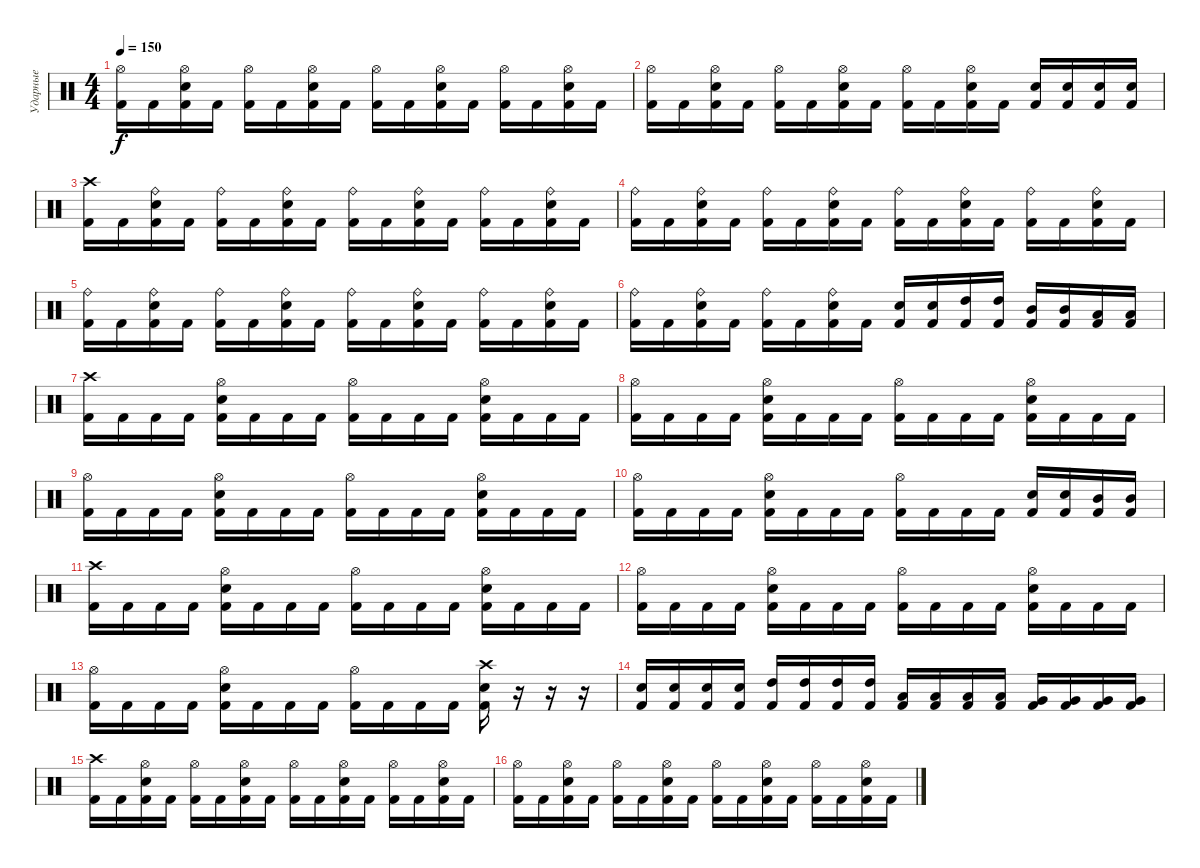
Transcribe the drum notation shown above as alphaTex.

\track ("Ударные" "Ударные") {instrument percussion}
\staff {score}
\articulation defaults
\ts (4 4)
\tempo 150
\clef neutral
\ks c
("Hi-Hat (open)" "Kick (hit) 2").16{dy f} "Kick (hit) 2".16 ("Hi-Hat (open)" "Electric Snare (hit)" "Kick (hit) 2").16 "Kick (hit) 2".16 ("Hi-Hat (open)" "Kick (hit) 2").16 "Kick (hit) 2".16 ("Hi-Hat (open)" "Electric Snare (hit)" "Kick (hit) 2").16 "Kick (hit) 2".16 ("Hi-Hat (open)" "Kick (hit) 2").16 "Kick (hit) 2".16 ("Hi-Hat (open)" "Electric Snare (hit)" "Kick (hit) 2").16 "Kick (hit) 2".16 ("Hi-Hat (open)" "Kick (hit) 2").16 "Kick (hit) 2".16 ("Hi-Hat (open)" "Electric Snare (hit)" "Kick (hit) 2").16 "Kick (hit) 2".16 |
("Hi-Hat (open)" "Kick (hit) 2").16 "Kick (hit) 2".16 ("Hi-Hat (open)" "Electric Snare (hit)" "Kick (hit) 2").16 "Kick (hit) 2".16 ("Hi-Hat (open)" "Kick (hit) 2").16 "Kick (hit) 2".16 ("Hi-Hat (open)" "Electric Snare (hit)" "Kick (hit) 2").16 "Kick (hit) 2".16 ("Hi-Hat (open)" "Kick (hit) 2").16 "Kick (hit) 2".16 ("Hi-Hat (open)" "Electric Snare (hit)" "Kick (hit) 2").16 "Kick (hit) 2".16 ("Electric Snare (hit)" "Kick (hit) 2").16 ("Electric Snare (hit)" "Kick (hit) 2").16 ("Electric Snare (hit)" "Kick (hit) 2").16 ("Electric Snare (hit)" "Kick (hit) 2").16 |
("Crash high (hit)" "Kick (hit) 2").16 "Kick (hit) 2".16 ("Ride (bell)" "Electric Snare (hit)" "Kick (hit) 2").16 "Kick (hit) 2".16 ("Ride (bell)" "Kick (hit) 2").16 "Kick (hit) 2".16 ("Ride (bell)" "Electric Snare (hit)" "Kick (hit) 2").16 "Kick (hit) 2".16 ("Ride (bell)" "Kick (hit) 2").16 "Kick (hit) 2".16 ("Ride (bell)" "Electric Snare (hit)" "Kick (hit) 2").16 "Kick (hit) 2".16 ("Ride (bell)" "Kick (hit) 2").16 "Kick (hit) 2".16 ("Ride (bell)" "Electric Snare (hit)" "Kick (hit) 2").16 "Kick (hit) 2".16 |
("Ride (bell)" "Kick (hit) 2").16 "Kick (hit) 2".16 ("Ride (bell)" "Electric Snare (hit)" "Kick (hit) 2").16 "Kick (hit) 2".16 ("Ride (bell)" "Kick (hit) 2").16 "Kick (hit) 2".16 ("Ride (bell)" "Electric Snare (hit)" "Kick (hit) 2").16 "Kick (hit) 2".16 ("Ride (bell)" "Kick (hit) 2").16 "Kick (hit) 2".16 ("Ride (bell)" "Electric Snare (hit)" "Kick (hit) 2").16 "Kick (hit) 2".16 ("Ride (bell)" "Kick (hit) 2").16 "Kick (hit) 2".16 ("Ride (bell)" "Electric Snare (hit)" "Kick (hit) 2").16 "Kick (hit) 2".16 |
("Ride (bell)" "Kick (hit) 2").16 "Kick (hit) 2".16 ("Ride (bell)" "Electric Snare (hit)" "Kick (hit) 2").16 "Kick (hit) 2".16 ("Ride (bell)" "Kick (hit) 2").16 "Kick (hit) 2".16 ("Ride (bell)" "Electric Snare (hit)" "Kick (hit) 2").16 "Kick (hit) 2".16 ("Ride (bell)" "Kick (hit) 2").16 "Kick (hit) 2".16 ("Ride (bell)" "Electric Snare (hit)" "Kick (hit) 2").16 "Kick (hit) 2".16 ("Ride (bell)" "Kick (hit) 2").16 "Kick (hit) 2".16 ("Ride (bell)" "Electric Snare (hit)" "Kick (hit) 2").16 "Kick (hit) 2".16 |
("Ride (bell)" "Kick (hit) 2").16 "Kick (hit) 2".16 ("Ride (bell)" "Electric Snare (hit)" "Kick (hit) 2").16 "Kick (hit) 2".16 ("Ride (bell)" "Kick (hit) 2").16 "Kick (hit) 2".16 ("Ride (bell)" "Electric Snare (hit)" "Kick (hit) 2").16 "Kick (hit) 2".16 ("Electric Snare (hit)" "Kick (hit) 2").16 ("Electric Snare (hit)" "Kick (hit) 2").16 ("High Tom (hit)" "Kick (hit) 2").16 ("High Tom (hit)" "Kick (hit) 2").16 ("Mid Tom (hit)" "Kick (hit) 2").16 ("Mid Tom (hit)" "Kick (hit) 2").16 ("Low Tom (hit)" "Kick (hit) 2").16 ("Low Tom (hit)" "Kick (hit) 2").16 |
("Crash high (hit)" "Kick (hit) 2").16 "Kick (hit) 2".16 "Kick (hit) 2".16 "Kick (hit) 2".16 ("Hi-Hat (open)" "Electric Snare (hit)" "Kick (hit) 2").16 "Kick (hit) 2".16 "Kick (hit) 2".16 "Kick (hit) 2".16 ("Hi-Hat (open)" "Kick (hit) 2").16 "Kick (hit) 2".16 "Kick (hit) 2".16 "Kick (hit) 2".16 ("Hi-Hat (open)" "Electric Snare (hit)" "Kick (hit) 2").16 "Kick (hit) 2".16 "Kick (hit) 2".16 "Kick (hit) 2".16 |
("Hi-Hat (open)" "Kick (hit) 2").16 "Kick (hit) 2".16 "Kick (hit) 2".16 "Kick (hit) 2".16 ("Hi-Hat (open)" "Electric Snare (hit)" "Kick (hit) 2").16 "Kick (hit) 2".16 "Kick (hit) 2".16 "Kick (hit) 2".16 ("Hi-Hat (open)" "Kick (hit) 2").16 "Kick (hit) 2".16 "Kick (hit) 2".16 "Kick (hit) 2".16 ("Hi-Hat (open)" "Electric Snare (hit)" "Kick (hit) 2").16 "Kick (hit) 2".16 "Kick (hit) 2".16 "Kick (hit) 2".16 |
("Hi-Hat (open)" "Kick (hit) 2").16 "Kick (hit) 2".16 "Kick (hit) 2".16 "Kick (hit) 2".16 ("Hi-Hat (open)" "Electric Snare (hit)" "Kick (hit) 2").16 "Kick (hit) 2".16 "Kick (hit) 2".16 "Kick (hit) 2".16 ("Hi-Hat (open)" "Kick (hit) 2").16 "Kick (hit) 2".16 "Kick (hit) 2".16 "Kick (hit) 2".16 ("Hi-Hat (open)" "Electric Snare (hit)" "Kick (hit) 2").16 "Kick (hit) 2".16 "Kick (hit) 2".16 "Kick (hit) 2".16 |
("Hi-Hat (open)" "Kick (hit) 2").16 "Kick (hit) 2".16 "Kick (hit) 2".16 "Kick (hit) 2".16 ("Hi-Hat (open)" "Electric Snare (hit)" "Kick (hit) 2").16 "Kick (hit) 2".16 "Kick (hit) 2".16 "Kick (hit) 2".16 ("Hi-Hat (open)" "Kick (hit) 2").16 "Kick (hit) 2".16 "Kick (hit) 2".16 "Kick (hit) 2".16 ("Electric Snare (hit)" "Kick (hit) 2").16 ("Electric Snare (hit)" "Kick (hit) 2").16 ("Mid Tom (hit)" "Kick (hit) 2").16 ("Mid Tom (hit)" "Kick (hit) 2").16 |
("Crash high (hit)" "Kick (hit) 2").16 "Kick (hit) 2".16 "Kick (hit) 2".16 "Kick (hit) 2".16 ("Hi-Hat (open)" "Electric Snare (hit)" "Kick (hit) 2").16 "Kick (hit) 2".16 "Kick (hit) 2".16 "Kick (hit) 2".16 ("Hi-Hat (open)" "Kick (hit) 2").16 "Kick (hit) 2".16 "Kick (hit) 2".16 "Kick (hit) 2".16 ("Hi-Hat (open)" "Electric Snare (hit)" "Kick (hit) 2").16 "Kick (hit) 2".16 "Kick (hit) 2".16 "Kick (hit) 2".16 |
("Hi-Hat (open)" "Kick (hit) 2").16 "Kick (hit) 2".16 "Kick (hit) 2".16 "Kick (hit) 2".16 ("Hi-Hat (open)" "Electric Snare (hit)" "Kick (hit) 2").16 "Kick (hit) 2".16 "Kick (hit) 2".16 "Kick (hit) 2".16 ("Hi-Hat (open)" "Kick (hit) 2").16 "Kick (hit) 2".16 "Kick (hit) 2".16 "Kick (hit) 2".16 ("Hi-Hat (open)" "Electric Snare (hit)" "Kick (hit) 2").16 "Kick (hit) 2".16 "Kick (hit) 2".16 "Kick (hit) 2".16 |
("Hi-Hat (open)" "Kick (hit) 2").16 "Kick (hit) 2".16 "Kick (hit) 2".16 "Kick (hit) 2".16 ("Hi-Hat (open)" "Electric Snare (hit)" "Kick (hit) 2").16 "Kick (hit) 2".16 "Kick (hit) 2".16 "Kick (hit) 2".16 ("Hi-Hat (open)" "Kick (hit) 2").16 "Kick (hit) 2".16 "Kick (hit) 2".16 "Kick (hit) 2".16 ("Crash high (hit)" "Electric Snare (hit)" "Kick (hit) 2").16 r.16 r.16 r.16 |
("Electric Snare (hit)" "Kick (hit) 2").16 ("Electric Snare (hit)" "Kick (hit) 2").16 ("Electric Snare (hit)" "Kick (hit) 2").16 ("Electric Snare (hit)" "Kick (hit) 2").16 ("High Tom (hit)" "Kick (hit) 2").16 ("High Tom (hit)" "Kick (hit) 2").16 ("High Tom (hit)" "Kick (hit) 2").16 ("High Tom (hit)" "Kick (hit) 2").16 ("Low Tom (hit)" "Kick (hit) 2").16 ("Low Tom (hit)" "Kick (hit) 2").16 ("Low Tom (hit)" "Kick (hit) 2").16 ("Low Tom (hit)" "Kick (hit) 2").16 ("Very Low Tom (hit)" "Kick (hit) 2").16 ("Very Low Tom (hit)" "Kick (hit) 2").16 ("Very Low Tom (hit)" "Kick (hit) 2").16 ("Very Low Tom (hit)" "Kick (hit) 2").16 |
("Crash high (hit)" "Kick (hit) 2").16 "Kick (hit) 2".16 ("Hi-Hat (open)" "Electric Snare (hit)" "Kick (hit) 2").16 "Kick (hit) 2".16 ("Hi-Hat (open)" "Kick (hit) 2").16 "Kick (hit) 2".16 ("Hi-Hat (open)" "Electric Snare (hit)" "Kick (hit) 2").16 "Kick (hit) 2".16 ("Hi-Hat (open)" "Kick (hit) 2").16 "Kick (hit) 2".16 ("Hi-Hat (open)" "Electric Snare (hit)" "Kick (hit) 2").16 "Kick (hit) 2".16 ("Hi-Hat (open)" "Kick (hit) 2").16 "Kick (hit) 2".16 ("Hi-Hat (open)" "Electric Snare (hit)" "Kick (hit) 2").16 "Kick (hit) 2".16 |
("Hi-Hat (open)" "Kick (hit) 2").16 "Kick (hit) 2".16 ("Hi-Hat (open)" "Electric Snare (hit)" "Kick (hit) 2").16 "Kick (hit) 2".16 ("Hi-Hat (open)" "Kick (hit) 2").16 "Kick (hit) 2".16 ("Hi-Hat (open)" "Electric Snare (hit)" "Kick (hit) 2").16 "Kick (hit) 2".16 ("Hi-Hat (open)" "Kick (hit) 2").16 "Kick (hit) 2".16 ("Hi-Hat (open)" "Electric Snare (hit)" "Kick (hit) 2").16 "Kick (hit) 2".16 ("Hi-Hat (open)" "Kick (hit) 2").16 "Kick (hit) 2".16 ("Hi-Hat (open)" "Electric Snare (hit)" "Kick (hit) 2").16 "Kick (hit) 2".16
